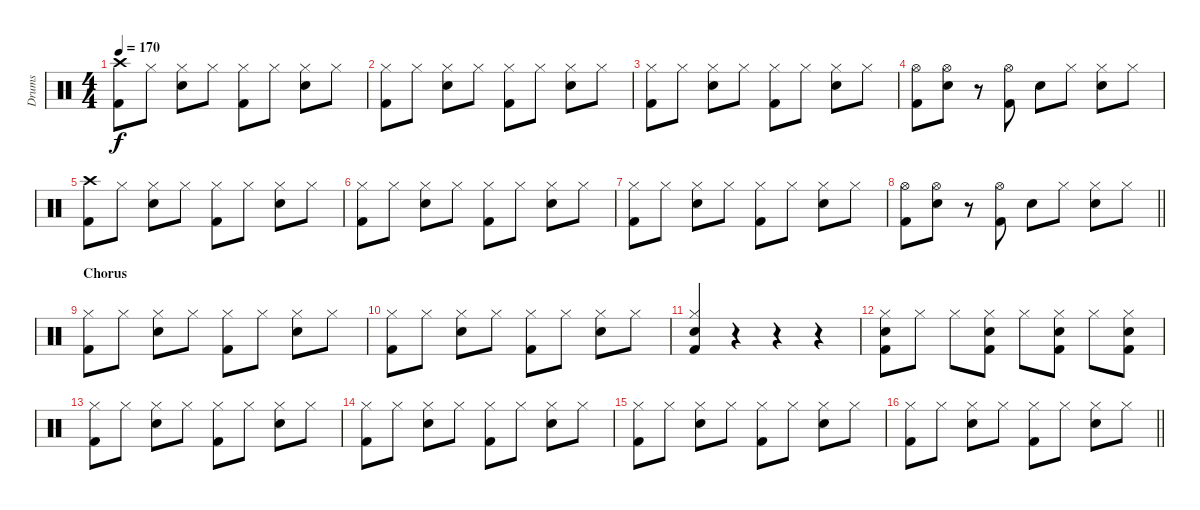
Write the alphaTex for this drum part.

\track ("Drums" "Drums") {instrument percussion}
\staff {score}
\articulation defaults
\ts (4 4)
\tempo 170
\clef neutral
\ks c
("Crash high (hit)" "Kick (hit) 2").8{dy f} "Hi-Hat (closed)".8 ("Hi-Hat (closed)" "Snare (hit) 2").8 "Hi-Hat (closed)".8 ("Hi-Hat (closed)" "Kick (hit) 2").8 "Hi-Hat (closed)".8 ("Hi-Hat (closed)" "Snare (hit) 2").8 "Hi-Hat (closed)".8 |
("Hi-Hat (closed)" "Kick (hit) 2").8 "Hi-Hat (closed)".8 ("Hi-Hat (closed)" "Snare (hit) 2").8 "Hi-Hat (closed)".8 ("Hi-Hat (closed)" "Kick (hit) 2").8 "Hi-Hat (closed)".8 ("Hi-Hat (closed)" "Snare (hit) 2").8 "Hi-Hat (closed)".8 |
("Hi-Hat (closed)" "Kick (hit) 2").8 "Hi-Hat (closed)".8 ("Hi-Hat (closed)" "Snare (hit) 2").8 "Hi-Hat (closed)".8 ("Hi-Hat (closed)" "Kick (hit) 2").8 "Hi-Hat (closed)".8 ("Hi-Hat (closed)" "Snare (hit) 2").8 "Hi-Hat (closed)".8 |
("Hi-Hat (open)" "Kick (hit) 2").8 ("Hi-Hat (open)" "Snare (hit) 2").8 r.8 ("Hi-Hat (open)" "Kick (hit) 2").8 "Snare (hit) 2".8 "Hi-Hat (closed)".8 ("Hi-Hat (closed)" "Snare (hit) 2").8 "Hi-Hat (closed)".8 |
("Crash high (hit)" "Kick (hit) 2").8 "Hi-Hat (closed)".8 ("Hi-Hat (closed)" "Snare (hit) 2").8 "Hi-Hat (closed)".8 ("Hi-Hat (closed)" "Kick (hit) 2").8 "Hi-Hat (closed)".8 ("Hi-Hat (closed)" "Snare (hit) 2").8 "Hi-Hat (closed)".8 |
("Hi-Hat (closed)" "Kick (hit) 2").8 "Hi-Hat (closed)".8 ("Hi-Hat (closed)" "Snare (hit) 2").8 "Hi-Hat (closed)".8 ("Hi-Hat (closed)" "Kick (hit) 2").8 "Hi-Hat (closed)".8 ("Hi-Hat (closed)" "Snare (hit) 2").8 "Hi-Hat (closed)".8 |
("Hi-Hat (closed)" "Kick (hit) 2").8 "Hi-Hat (closed)".8 ("Hi-Hat (closed)" "Snare (hit) 2").8 "Hi-Hat (closed)".8 ("Hi-Hat (closed)" "Kick (hit) 2").8 "Hi-Hat (closed)".8 ("Hi-Hat (closed)" "Snare (hit) 2").8 "Hi-Hat (closed)".8 |
\barLineRight lightlight
("Hi-Hat (open)" "Kick (hit) 2").8 ("Hi-Hat (open)" "Snare (hit) 2").8 r.8 ("Hi-Hat (open)" "Kick (hit) 2").8 "Snare (hit) 2".8 "Hi-Hat (closed)".8 ("Hi-Hat (closed)" "Snare (hit) 2").8 "Hi-Hat (closed)".8 |
\section ("" "Chorus")
("Hi-Hat (closed)" "Kick (hit) 2").8 "Hi-Hat (closed)".8 ("Hi-Hat (closed)" "Snare (hit) 2").8 "Hi-Hat (closed)".8 ("Hi-Hat (closed)" "Kick (hit) 2").8 "Hi-Hat (closed)".8 ("Hi-Hat (closed)" "Snare (hit) 2").8 "Hi-Hat (closed)".8 |
("Hi-Hat (closed)" "Kick (hit) 2").8 "Hi-Hat (closed)".8 ("Hi-Hat (closed)" "Snare (hit) 2").8 "Hi-Hat (closed)".8 ("Hi-Hat (closed)" "Kick (hit) 2").8 "Hi-Hat (closed)".8 ("Hi-Hat (closed)" "Snare (hit) 2").8 "Hi-Hat (closed)".8 |
("Hi-Hat (closed)" "Snare (hit) 2" "Kick (hit) 2").4 r.4 r.4 r.4 |
("Hi-Hat (closed)" "Snare (hit) 2" "Kick (hit) 2").8 "Hi-Hat (closed)".8 "Hi-Hat (closed)".8 ("Hi-Hat (closed)" "Snare (hit) 2" "Kick (hit) 2").8 "Hi-Hat (closed)".8 ("Hi-Hat (closed)" "Snare (hit) 2" "Kick (hit) 2").8 "Hi-Hat (closed)".8 ("Hi-Hat (closed)" "Snare (hit) 2" "Kick (hit) 2").8 |
("Hi-Hat (closed)" "Kick (hit) 2").8 "Hi-Hat (closed)".8 ("Hi-Hat (closed)" "Snare (hit) 2").8 "Hi-Hat (closed)".8 ("Hi-Hat (closed)" "Kick (hit) 2").8 "Hi-Hat (closed)".8 ("Hi-Hat (closed)" "Snare (hit) 2").8 "Hi-Hat (closed)".8 |
("Hi-Hat (closed)" "Kick (hit) 2").8 "Hi-Hat (closed)".8 ("Hi-Hat (closed)" "Snare (hit) 2").8 "Hi-Hat (closed)".8 ("Hi-Hat (closed)" "Kick (hit) 2").8 "Hi-Hat (closed)".8 ("Hi-Hat (closed)" "Snare (hit) 2").8 "Hi-Hat (closed)".8 |
("Hi-Hat (closed)" "Kick (hit) 2").8 "Hi-Hat (closed)".8 ("Hi-Hat (closed)" "Snare (hit) 2").8 "Hi-Hat (closed)".8 ("Hi-Hat (closed)" "Kick (hit) 2").8 "Hi-Hat (closed)".8 ("Hi-Hat (closed)" "Snare (hit) 2").8 "Hi-Hat (closed)".8 |
\barLineRight lightlight
("Hi-Hat (closed)" "Kick (hit) 2").8 "Hi-Hat (closed)".8 ("Hi-Hat (closed)" "Snare (hit) 2").8 "Hi-Hat (closed)".8 ("Hi-Hat (closed)" "Kick (hit) 2").8 "Hi-Hat (closed)".8 ("Hi-Hat (closed)" "Snare (hit) 2").8 "Hi-Hat (closed)".8
